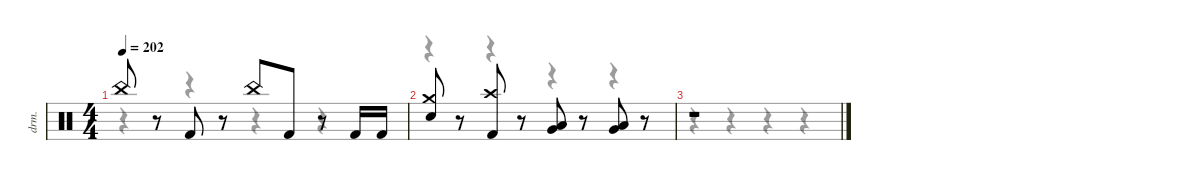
\defaultSystemsLayout 4
\hideDynamics
\bracketExtendMode nobrackets
\track ("Alex Ballew" "drm.") {instrument percussion}
\staff {score}
\articulation defaults
\voice
\ts (4 4)
\tempo 202
\clef neutral
\ks c "China (hit)".8{dy f beam Up}
r.8{beam Up} "Kick (hit) 2".8{beam Up} r.8{beam Up} "China (hit)".8{beam Up} "Kick (hit) 2".8{beam Up} r.8{beam Up} "Kick (hit) 2".16{beam Up} "Kick (hit) 2".16{beam Up} |
("Crash medium (hit)" "Snare (hit) 2").8{beam Up} r.8{beam Up} ("Crash high (hit)" "Kick (hit) 2").8{beam Up} r.8{beam Up} ("Low Tom (hit)" "Very Low Tom (hit)").8{beam Up} r.8{beam Up} ("Low Tom (hit)" "Very Low Tom (hit)").8{beam Up} r.8{beam Up} |
r.1{beam Up}
\voice
\clef neutral
\ottava regular
\simile none
\ks c
r.4{dy mf beam Down} r.4{beam Down} r.4{beam Down} r.4{beam Down} |
r.4{beam Down} r.4{beam Down} r.4{beam Down} r.4{beam Down} |
r.4{beam Down} r.4{beam Down} r.4{beam Down} r.4{beam Down}
